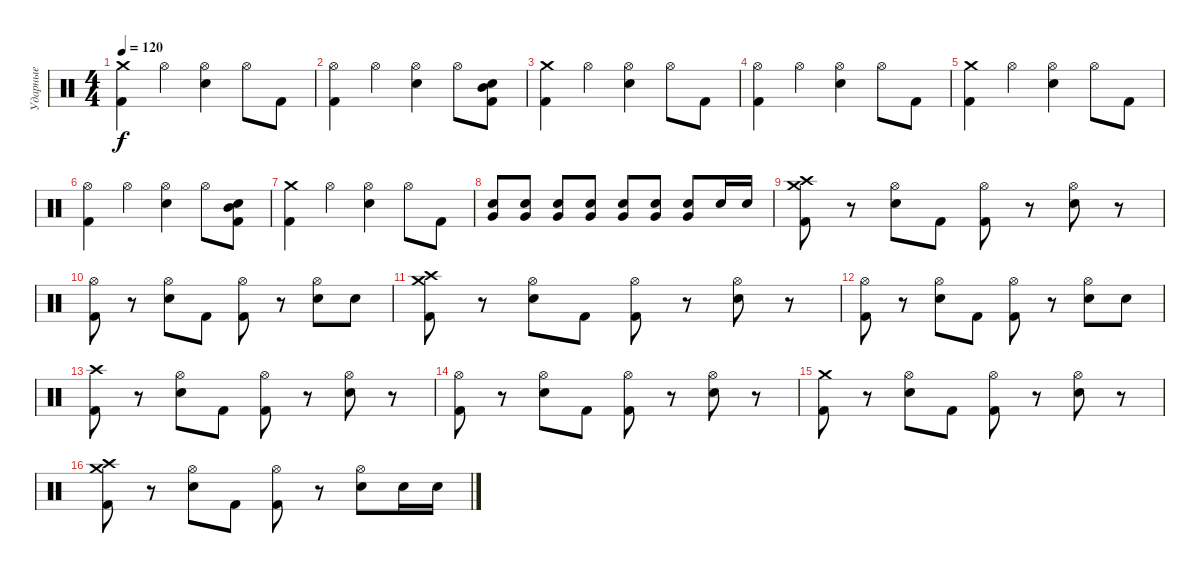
\track ("Ударные" "Ударные") {instrument percussion}
\staff {score}
\articulation defaults
\ts (4 4)
\tempo 120
\clef neutral
\ks c
("Kick (hit) 2" "Crash medium (hit)").4{dy f} "Hi-Hat (open)".4 ("Electric Snare (hit)" "Hi-Hat (open)").4 "Hi-Hat (open)".8 "Kick (hit) 2".8 |
("Kick (hit) 2" "Hi-Hat (open)").4 "Hi-Hat (open)".4 ("Electric Snare (hit)" "Hi-Hat (open)").4 "Hi-Hat (open)".8 ("Kick (hit) 2" "Electric Snare (hit)" "Mid Tom (hit)").8 |
("Kick (hit) 2" "Crash medium (hit)").4 "Hi-Hat (open)".4 ("Electric Snare (hit)" "Hi-Hat (open)").4 "Hi-Hat (open)".8 "Kick (hit) 2".8 |
("Kick (hit) 2" "Hi-Hat (open)").4 "Hi-Hat (open)".4 ("Electric Snare (hit)" "Hi-Hat (open)").4 "Hi-Hat (open)".8 "Kick (hit) 2".8 |
("Kick (hit) 2" "Crash medium (hit)").4 "Hi-Hat (open)".4 ("Electric Snare (hit)" "Hi-Hat (open)").4 "Hi-Hat (open)".8 "Kick (hit) 2".8 |
("Kick (hit) 2" "Hi-Hat (open)").4 "Hi-Hat (open)".4 ("Electric Snare (hit)" "Hi-Hat (open)").4 "Hi-Hat (open)".8 ("Kick (hit) 2" "Electric Snare (hit)" "Mid Tom (hit)").8 |
("Kick (hit) 2" "Crash medium (hit)").4 "Hi-Hat (open)".4 ("Electric Snare (hit)" "Hi-Hat (open)").4 "Hi-Hat (open)".8 "Kick (hit) 2".8 |
("Electric Snare (hit)" "Very Low Tom (hit)").8 ("Electric Snare (hit)" "Very Low Tom (hit)").8 ("Electric Snare (hit)" "Very Low Tom (hit)").8 ("Electric Snare (hit)" "Very Low Tom (hit)").8 ("Electric Snare (hit)" "Very Low Tom (hit)").8 ("Electric Snare (hit)" "Very Low Tom (hit)").8 ("Electric Snare (hit)" "Very Low Tom (hit)").8 "Electric Snare (hit)".16 "Electric Snare (hit)".16 |
("Kick (hit) 2" "Crash medium (hit)" "Crash high (hit)").8 r.8 ("Electric Snare (hit)" "Hi-Hat (open)").8 "Kick (hit) 2".8 ("Kick (hit) 2" "Hi-Hat (open)").8 r.8 ("Electric Snare (hit)" "Hi-Hat (open)").8 r.8 |
("Kick (hit) 2" "Hi-Hat (open)").8 r.8 ("Electric Snare (hit)" "Hi-Hat (open)").8 "Kick (hit) 2".8 ("Kick (hit) 2" "Hi-Hat (open)").8 r.8 ("Electric Snare (hit)" "Hi-Hat (open)").8 "Electric Snare (hit)".8 |
("Kick (hit) 2" "Crash medium (hit)" "Crash high (hit)").8 r.8 ("Electric Snare (hit)" "Hi-Hat (open)").8 "Kick (hit) 2".8 ("Kick (hit) 2" "Hi-Hat (open)").8 r.8 ("Electric Snare (hit)" "Hi-Hat (open)").8 r.8 |
("Kick (hit) 2" "Hi-Hat (open)").8 r.8 ("Electric Snare (hit)" "Hi-Hat (open)").8 "Kick (hit) 2".8 ("Kick (hit) 2" "Hi-Hat (open)").8 r.8 ("Electric Snare (hit)" "Hi-Hat (open)").8 "Electric Snare (hit)".8 |
("Kick (hit) 2" "Crash high (hit)").8 r.8 ("Electric Snare (hit)" "Hi-Hat (open)").8 "Kick (hit) 2".8 ("Kick (hit) 2" "Hi-Hat (open)").8 r.8 ("Electric Snare (hit)" "Hi-Hat (open)").8 r.8 |
("Kick (hit) 2" "Hi-Hat (open)").8 r.8 ("Electric Snare (hit)" "Hi-Hat (open)").8 "Kick (hit) 2".8 ("Kick (hit) 2" "Hi-Hat (open)").8 r.8 ("Electric Snare (hit)" "Hi-Hat (open)").8 r.8 |
("Kick (hit) 2" "Crash medium (hit)").8 r.8 ("Electric Snare (hit)" "Hi-Hat (open)").8 "Kick (hit) 2".8 ("Kick (hit) 2" "Hi-Hat (open)").8 r.8 ("Electric Snare (hit)" "Hi-Hat (open)").8 r.8 |
("Kick (hit) 2" "Crash medium (hit)" "Crash high (hit)").8 r.8 ("Electric Snare (hit)" "Hi-Hat (open)").8 "Kick (hit) 2".8 ("Kick (hit) 2" "Hi-Hat (open)").8 r.8 ("Electric Snare (hit)" "Hi-Hat (open)").8 "Electric Snare (hit)".16 "Electric Snare (hit)".16
